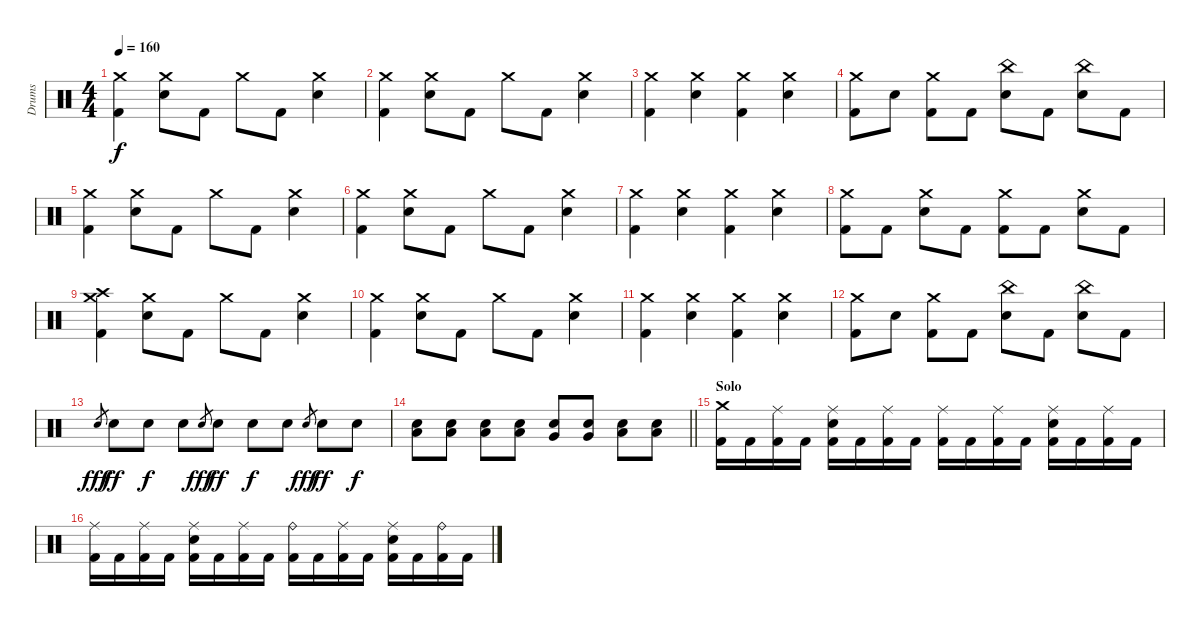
\track ("Drums" "Drums") {instrument percussion}
\staff {score}
\articulation defaults
\ts (4 4)
\tempo 160
\clef neutral
\ks c
("Crash medium (hit)" "Kick (hit) 2").4{dy f} ("Crash medium (hit)" "Snare (hit) 2").8 "Kick (hit) 2".8 "Crash medium (hit)".8 "Kick (hit) 2".8 ("Crash medium (hit)" "Snare (hit) 2").4 |
("Crash medium (hit)" "Kick (hit) 2").4 ("Crash medium (hit)" "Snare (hit) 2").8 "Kick (hit) 2".8 "Crash medium (hit)".8 "Kick (hit) 2".8 ("Crash medium (hit)" "Snare (hit) 2").4 |
("Crash medium (hit)" "Kick (hit) 2").4 ("Crash medium (hit)" "Snare (hit) 2").4 ("Crash medium (hit)" "Kick (hit) 2").4 ("Crash medium (hit)" "Snare (hit) 2").4 |
("Crash medium (hit)" "Kick (hit) 2").8 "Snare (hit) 2".8 ("Crash medium (hit)" "Kick (hit) 2").8 "Kick (hit) 2".8 ("China (hit)" "Snare (hit) 2").8 "Kick (hit) 2".8 ("China (hit)" "Snare (hit) 2").8 "Kick (hit) 2".8 |
("Crash medium (hit)" "Kick (hit) 2").4 ("Crash medium (hit)" "Snare (hit) 2").8 "Kick (hit) 2".8 "Crash medium (hit)".8 "Kick (hit) 2".8 ("Crash medium (hit)" "Snare (hit) 2").4 |
("Crash medium (hit)" "Kick (hit) 2").4 ("Crash medium (hit)" "Snare (hit) 2").8 "Kick (hit) 2".8 "Crash medium (hit)".8 "Kick (hit) 2".8 ("Crash medium (hit)" "Snare (hit) 2").4 |
("Crash medium (hit)" "Kick (hit) 2").4 ("Crash medium (hit)" "Snare (hit) 2").4 ("Crash medium (hit)" "Kick (hit) 2").4 ("Crash medium (hit)" "Snare (hit) 2").4 |
("Crash medium (hit)" "Kick (hit) 2").8 "Kick (hit) 2".8 ("Crash medium (hit)" "Snare (hit) 2").8 "Kick (hit) 2".8 ("Crash medium (hit)" "Kick (hit) 2").8 "Kick (hit) 2".8 ("Crash medium (hit)" "Snare (hit) 2").8 "Kick (hit) 2".8 |
("Crash medium (hit)" "Crash high (hit)" "Kick (hit) 2").4 ("Crash medium (hit)" "Snare (hit) 2").8 "Kick (hit) 2".8 "Crash medium (hit)".8 "Kick (hit) 2".8 ("Crash medium (hit)" "Snare (hit) 2").4 |
("Crash medium (hit)" "Kick (hit) 2").4 ("Crash medium (hit)" "Snare (hit) 2").8 "Kick (hit) 2".8 "Crash medium (hit)".8 "Kick (hit) 2".8 ("Crash medium (hit)" "Snare (hit) 2").4 |
("Crash medium (hit)" "Kick (hit) 2").4 ("Crash medium (hit)" "Snare (hit) 2").4 ("Crash medium (hit)" "Kick (hit) 2").4 ("Crash medium (hit)" "Snare (hit) 2").4 |
("Crash medium (hit)" "Kick (hit) 2").8 "Snare (hit) 2".8 ("Crash medium (hit)" "Kick (hit) 2").8 "Kick (hit) 2".8 ("China (hit)" "Snare (hit) 2").8 "Kick (hit) 2".8 ("China (hit)" "Snare (hit) 2").8 "Kick (hit) 2".8 |
"Snare (hit) 2".8{gr dy fff} "Snare (hit) 2".8{dy ff} "Snare (hit) 2".8{dy f} "Snare (hit) 2".8 "Snare (hit) 2".8{gr dy fff} "Snare (hit) 2".8{dy ff} "Snare (hit) 2".8{dy f} "Snare (hit) 2".8 "Snare (hit) 2".8{gr dy fff} "Snare (hit) 2".8{dy ff} "Snare (hit) 2".8{dy f} |
\barLineRight lightlight
("Low Tom (hit)" "Snare (hit) 2").8 ("Low Tom (hit)" "Snare (hit) 2").8 ("Low Tom (hit)" "Snare (hit) 2").8 ("Low Tom (hit)" "Snare (hit) 2").8 ("Very Low Tom (hit)" "Snare (hit) 2").8 ("Very Low Tom (hit)" "Snare (hit) 2").8 ("Low Floor Tom (hit)" "Snare (hit) 2").8 ("Low Floor Tom (hit)" "Snare (hit) 2").8 |
\section ("" "Solo")
("Crash medium (hit)" "Kick (hit) 2").16 "Kick (hit) 2".16 ("Ride (middle)" "Kick (hit) 2").16 "Kick (hit) 2".16 ("Ride (middle)" "Snare (hit) 2" "Kick (hit) 2").16 "Kick (hit) 2".16 ("Ride (middle)" "Kick (hit) 2").16 "Kick (hit) 2".16 ("Ride (middle)" "Kick (hit) 2").16 "Kick (hit) 2".16 ("Ride (middle)" "Kick (hit) 2").16 "Kick (hit) 2".16 ("Ride (middle)" "Snare (hit) 2" "Kick (hit) 2").16 "Kick (hit) 2".16 ("Ride (middle)" "Kick (hit) 2").16 "Kick (hit) 2".16 |
("Ride (middle)" "Kick (hit) 2").16 "Kick (hit) 2".16 ("Ride (middle)" "Kick (hit) 2").16 "Kick (hit) 2".16 ("Ride (middle)" "Snare (hit) 2" "Kick (hit) 2").16 "Kick (hit) 2".16 ("Ride (middle)" "Kick (hit) 2").16 "Kick (hit) 2".16 ("Ride (bell)" "Kick (hit) 2").16 "Kick (hit) 2".16 ("Ride (middle)" "Kick (hit) 2").16 "Kick (hit) 2".16 ("Ride (middle)" "Snare (hit) 2" "Kick (hit) 2").16 "Kick (hit) 2".16 ("Ride (bell)" "Kick (hit) 2").16 "Kick (hit) 2".16
